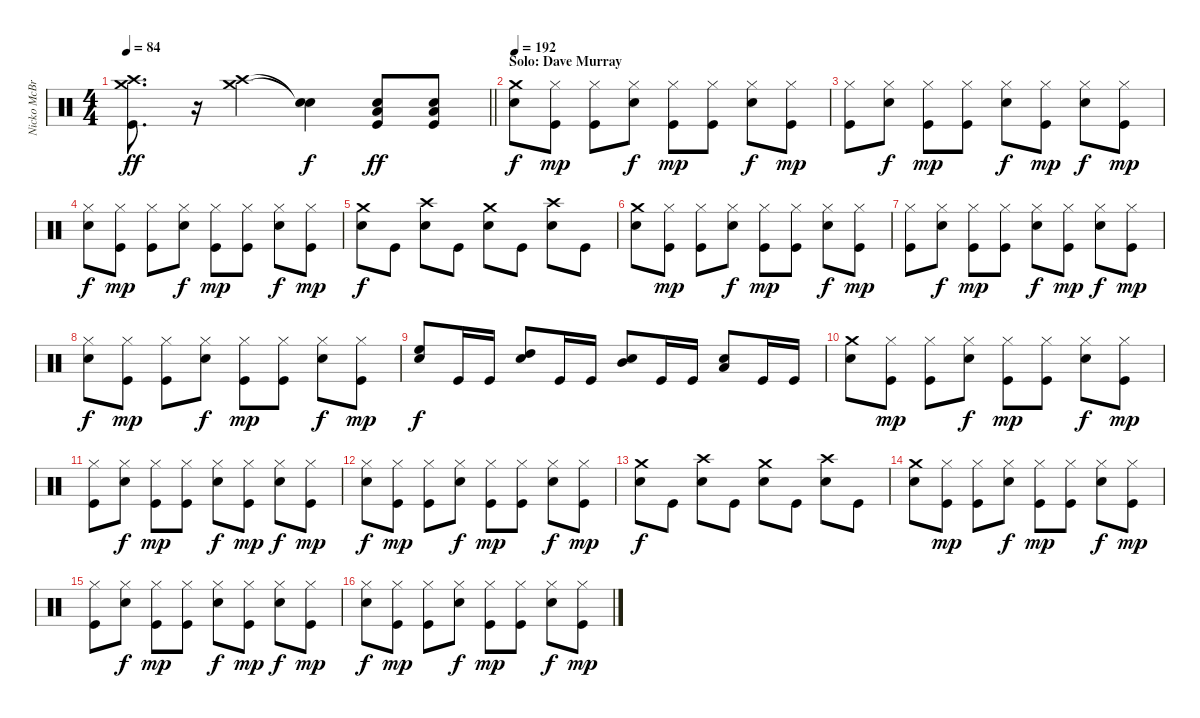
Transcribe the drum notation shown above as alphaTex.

\track ("Nicko McBrain" "Nicko McBr") {instrument percussion}
\staff {score}
\articulation defaults
\ts (4 4)
\tempo 84
\clef neutral
\barLineRight lightlight
\ks c
("Crash high (hit)" "Crash medium (hit)" "Kick (hit)").8{d dy ff} r.16{volume 0} ("Crash high (hit)" "Crash medium (hit)").4{volume 14} ("Snare (hit)"{t} "Snare (hit)"{t}).4{dy f} ("Electric Snare (hit)" "Low Floor Tom (hit)" "Kick (hit)").8{dy ff} ("Electric Snare (hit)" "Low Floor Tom (hit)" "Kick (hit)").8 |
\section ("" "Solo: Dave Murray")
\tempo 192
("Crash medium (hit)" "Electric Snare (hit)").8{dy f} ("Hi-Hat (closed)" "Kick (hit)").8{dy mp} ("Hi-Hat (closed)" "Kick (hit)").8 ("Hi-Hat (closed)" "Electric Snare (hit)").8{dy f} ("Hi-Hat (closed)" "Kick (hit)").8{dy mp} ("Hi-Hat (closed)" "Kick (hit)").8 ("Hi-Hat (closed)" "Electric Snare (hit)").8{dy f} ("Hi-Hat (closed)" "Kick (hit)").8{dy mp} |
("Hi-Hat (closed)" "Kick (hit)").8 ("Hi-Hat (closed)" "Electric Snare (hit)").8{dy f} ("Hi-Hat (closed)" "Kick (hit)").8{dy mp} ("Hi-Hat (closed)" "Kick (hit)").8 ("Hi-Hat (closed)" "Electric Snare (hit)").8{dy f} ("Hi-Hat (closed)" "Kick (hit)").8{dy mp} ("Hi-Hat (closed)" "Electric Snare (hit)").8{dy f} ("Hi-Hat (closed)" "Kick (hit)").8{dy mp} |
("Hi-Hat (closed)" "Electric Snare (hit)").8{dy f} ("Hi-Hat (closed)" "Kick (hit)").8{dy mp} ("Hi-Hat (closed)" "Kick (hit)").8 ("Hi-Hat (closed)" "Electric Snare (hit)").8{dy f} ("Hi-Hat (closed)" "Kick (hit)").8{dy mp} ("Hi-Hat (closed)" "Kick (hit)").8 ("Hi-Hat (closed)" "Electric Snare (hit)").8{dy f} ("Hi-Hat (closed)" "Kick (hit)").8{dy mp} |
("Crash medium (hit)" "Electric Snare (hit)").8{dy f} "Kick (hit)".8 ("Crash high (hit)" "Electric Snare (hit)").8 "Kick (hit)".8 ("Crash medium (hit)" "Electric Snare (hit)").8 "Kick (hit)".8 ("Crash high (hit)" "Electric Snare (hit)").8 "Kick (hit)".8 |
("Crash medium (hit)" "Electric Snare (hit)").8 ("Hi-Hat (closed)" "Kick (hit)").8{dy mp} ("Hi-Hat (closed)" "Kick (hit)").8 ("Hi-Hat (closed)" "Electric Snare (hit)").8{dy f} ("Hi-Hat (closed)" "Kick (hit)").8{dy mp} ("Hi-Hat (closed)" "Kick (hit)").8 ("Hi-Hat (closed)" "Electric Snare (hit)").8{dy f} ("Hi-Hat (closed)" "Kick (hit)").8{dy mp} |
("Hi-Hat (closed)" "Kick (hit)").8 ("Hi-Hat (closed)" "Electric Snare (hit)").8{dy f} ("Hi-Hat (closed)" "Kick (hit)").8{dy mp} ("Hi-Hat (closed)" "Kick (hit)").8 ("Hi-Hat (closed)" "Electric Snare (hit)").8{dy f} ("Hi-Hat (closed)" "Kick (hit)").8{dy mp} ("Hi-Hat (closed)" "Electric Snare (hit)").8{dy f} ("Hi-Hat (closed)" "Kick (hit)").8{dy mp} |
("Hi-Hat (closed)" "Electric Snare (hit)").8{dy f} ("Hi-Hat (closed)" "Kick (hit)").8{dy mp} ("Hi-Hat (closed)" "Kick (hit)").8 ("Hi-Hat (closed)" "Electric Snare (hit)").8{dy f} ("Hi-Hat (closed)" "Kick (hit)").8{dy mp} ("Hi-Hat (closed)" "Kick (hit)").8 ("Hi-Hat (closed)" "Electric Snare (hit)").8{dy f} ("Hi-Hat (closed)" "Kick (hit)").8{dy mp} |
("High Floor Tom (hit)" "Electric Snare (hit)").8{dy f} "Kick (hit)".16 "Kick (hit)".16 ("High Tom (hit)" "Electric Snare (hit)").8 "Kick (hit)".16 "Kick (hit)".16 ("Electric Snare (hit)" "Mid Tom (hit)").8 "Kick (hit)".16 "Kick (hit)".16 ("Electric Snare (hit)" "Low Tom (hit)").8 "Kick (hit)".16 "Kick (hit)".16 |
("Crash medium (hit)" "Electric Snare (hit)").8 ("Hi-Hat (closed)" "Kick (hit)").8{dy mp} ("Hi-Hat (closed)" "Kick (hit)").8 ("Hi-Hat (closed)" "Electric Snare (hit)").8{dy f} ("Hi-Hat (closed)" "Kick (hit)").8{dy mp} ("Hi-Hat (closed)" "Kick (hit)").8 ("Hi-Hat (closed)" "Electric Snare (hit)").8{dy f} ("Hi-Hat (closed)" "Kick (hit)").8{dy mp} |
("Hi-Hat (closed)" "Kick (hit)").8 ("Hi-Hat (closed)" "Electric Snare (hit)").8{dy f} ("Hi-Hat (closed)" "Kick (hit)").8{dy mp} ("Hi-Hat (closed)" "Kick (hit)").8 ("Hi-Hat (closed)" "Electric Snare (hit)").8{dy f} ("Hi-Hat (closed)" "Kick (hit)").8{dy mp} ("Hi-Hat (closed)" "Electric Snare (hit)").8{dy f} ("Hi-Hat (closed)" "Kick (hit)").8{dy mp} |
("Hi-Hat (closed)" "Electric Snare (hit)").8{dy f} ("Hi-Hat (closed)" "Kick (hit)").8{dy mp} ("Hi-Hat (closed)" "Kick (hit)").8 ("Hi-Hat (closed)" "Electric Snare (hit)").8{dy f} ("Hi-Hat (closed)" "Kick (hit)").8{dy mp} ("Hi-Hat (closed)" "Kick (hit)").8 ("Hi-Hat (closed)" "Electric Snare (hit)").8{dy f} ("Hi-Hat (closed)" "Kick (hit)").8{dy mp} |
("Crash medium (hit)" "Electric Snare (hit)").8{dy f} "Kick (hit)".8 ("Crash high (hit)" "Electric Snare (hit)").8 "Kick (hit)".8 ("Crash medium (hit)" "Electric Snare (hit)").8 "Kick (hit)".8 ("Crash high (hit)" "Electric Snare (hit)").8 "Kick (hit)".8 |
("Crash medium (hit)" "Electric Snare (hit)").8 ("Hi-Hat (closed)" "Kick (hit)").8{dy mp} ("Hi-Hat (closed)" "Kick (hit)").8 ("Hi-Hat (closed)" "Electric Snare (hit)").8{dy f} ("Hi-Hat (closed)" "Kick (hit)").8{dy mp} ("Hi-Hat (closed)" "Kick (hit)").8 ("Hi-Hat (closed)" "Electric Snare (hit)").8{dy f} ("Hi-Hat (closed)" "Kick (hit)").8{dy mp} |
("Hi-Hat (closed)" "Kick (hit)").8 ("Hi-Hat (closed)" "Electric Snare (hit)").8{dy f} ("Hi-Hat (closed)" "Kick (hit)").8{dy mp} ("Hi-Hat (closed)" "Kick (hit)").8 ("Hi-Hat (closed)" "Electric Snare (hit)").8{dy f} ("Hi-Hat (closed)" "Kick (hit)").8{dy mp} ("Hi-Hat (closed)" "Electric Snare (hit)").8{dy f} ("Hi-Hat (closed)" "Kick (hit)").8{dy mp} |
("Hi-Hat (closed)" "Electric Snare (hit)").8{dy f} ("Hi-Hat (closed)" "Kick (hit)").8{dy mp} ("Hi-Hat (closed)" "Kick (hit)").8 ("Hi-Hat (closed)" "Electric Snare (hit)").8{dy f} ("Hi-Hat (closed)" "Kick (hit)").8{dy mp} ("Hi-Hat (closed)" "Kick (hit)").8 ("Hi-Hat (closed)" "Electric Snare (hit)").8{dy f} ("Hi-Hat (closed)" "Kick (hit)").8{dy mp}
